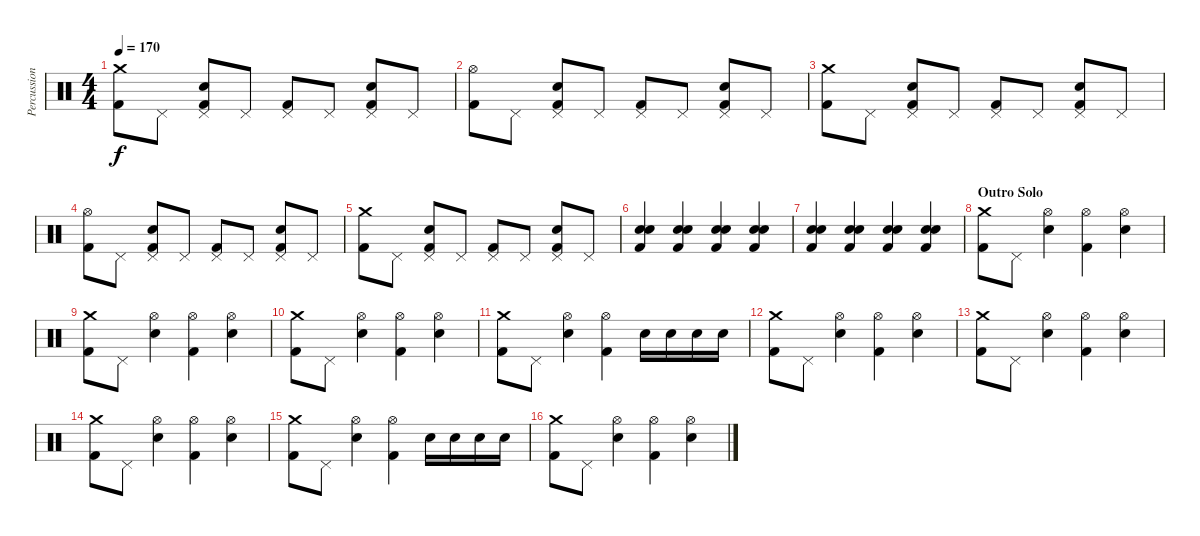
\track ("Percussion" "Percussion") {instrument percussion}
\staff {score}
\articulation defaults
\ts (4 4)
\tempo 170
\clef neutral
\ks c
("Crash medium (hit)" "Kick (hit) 2").8{dy f} "Pedal Hi-Hat (hit)".8 ("Pedal Hi-Hat (hit)" "Electric Snare (hit)" "Kick (hit) 2").8 "Pedal Hi-Hat (hit)".8 ("Pedal Hi-Hat (hit)" "Kick (hit) 2").8 "Pedal Hi-Hat (hit)".8 ("Pedal Hi-Hat (hit)" "Electric Snare (hit)" "Kick (hit) 2").8 "Pedal Hi-Hat (hit)".8 |
("Hi-Hat (open)" "Kick (hit) 2").8 "Pedal Hi-Hat (hit)".8 ("Pedal Hi-Hat (hit)" "Electric Snare (hit)" "Kick (hit) 2").8 "Pedal Hi-Hat (hit)".8 ("Pedal Hi-Hat (hit)" "Kick (hit) 2").8 "Pedal Hi-Hat (hit)".8 ("Pedal Hi-Hat (hit)" "Electric Snare (hit)" "Kick (hit) 2").8 "Pedal Hi-Hat (hit)".8 |
("Crash medium (hit)" "Kick (hit) 2").8 "Pedal Hi-Hat (hit)".8 ("Pedal Hi-Hat (hit)" "Electric Snare (hit)" "Kick (hit) 2").8 "Pedal Hi-Hat (hit)".8 ("Pedal Hi-Hat (hit)" "Kick (hit) 2").8 "Pedal Hi-Hat (hit)".8 ("Pedal Hi-Hat (hit)" "Electric Snare (hit)" "Kick (hit) 2").8 "Pedal Hi-Hat (hit)".8 |
("Hi-Hat (open)" "Kick (hit) 2").8 "Pedal Hi-Hat (hit)".8 ("Pedal Hi-Hat (hit)" "Electric Snare (hit)" "Kick (hit) 2").8 "Pedal Hi-Hat (hit)".8 ("Pedal Hi-Hat (hit)" "Kick (hit) 2").8 "Pedal Hi-Hat (hit)".8 ("Pedal Hi-Hat (hit)" "Electric Snare (hit)" "Kick (hit) 2").8 "Pedal Hi-Hat (hit)".8 |
("Crash medium (hit)" "Kick (hit) 2").8 "Pedal Hi-Hat (hit)".8 ("Pedal Hi-Hat (hit)" "Electric Snare (hit)" "Kick (hit) 2").8 "Pedal Hi-Hat (hit)".8 ("Pedal Hi-Hat (hit)" "Kick (hit) 2").8 "Pedal Hi-Hat (hit)".8 ("Pedal Hi-Hat (hit)" "Electric Snare (hit)" "Kick (hit) 2").8 "Pedal Hi-Hat (hit)".8 |
("Electric Snare (hit)" "Electric Snare (hit)" "Kick (hit) 2").4 ("Electric Snare (hit)" "Electric Snare (hit)" "Kick (hit) 2").4 ("Electric Snare (hit)" "Electric Snare (hit)" "Kick (hit) 2").4 ("Electric Snare (hit)" "Electric Snare (hit)" "Kick (hit) 2").4 |
("Electric Snare (hit)" "Electric Snare (hit)" "Kick (hit) 2").4 ("Electric Snare (hit)" "Electric Snare (hit)" "Kick (hit) 2").4 ("Electric Snare (hit)" "Electric Snare (hit)" "Kick (hit) 2").4 ("Electric Snare (hit)" "Electric Snare (hit)" "Kick (hit) 2").4 |
\section ("" "Outro Solo")
("Crash medium (hit)" "Kick (hit) 2").8 "Pedal Hi-Hat (hit)".8 ("Hi-Hat (open)" "Electric Snare (hit)").4 ("Hi-Hat (open)" "Kick (hit) 2").4 ("Hi-Hat (open)" "Electric Snare (hit)").4 |
("Crash medium (hit)" "Kick (hit) 2").8 "Pedal Hi-Hat (hit)".8 ("Hi-Hat (open)" "Electric Snare (hit)").4 ("Hi-Hat (open)" "Kick (hit) 2").4 ("Hi-Hat (open)" "Electric Snare (hit)").4 |
("Crash medium (hit)" "Kick (hit) 2").8 "Pedal Hi-Hat (hit)".8 ("Hi-Hat (open)" "Electric Snare (hit)").4 ("Hi-Hat (open)" "Kick (hit) 2").4 ("Hi-Hat (open)" "Electric Snare (hit)").4 |
("Crash medium (hit)" "Kick (hit) 2").8 "Pedal Hi-Hat (hit)".8 ("Hi-Hat (open)" "Electric Snare (hit)").4 ("Hi-Hat (open)" "Kick (hit) 2").4 "Electric Snare (hit)".16 "Electric Snare (hit)".16 "Electric Snare (hit)".16 "Electric Snare (hit)".16 |
("Crash medium (hit)" "Kick (hit) 2").8 "Pedal Hi-Hat (hit)".8 ("Hi-Hat (open)" "Electric Snare (hit)").4 ("Hi-Hat (open)" "Kick (hit) 2").4 ("Hi-Hat (open)" "Electric Snare (hit)").4 |
("Crash medium (hit)" "Kick (hit) 2").8 "Pedal Hi-Hat (hit)".8 ("Hi-Hat (open)" "Electric Snare (hit)").4 ("Hi-Hat (open)" "Kick (hit) 2").4 ("Hi-Hat (open)" "Electric Snare (hit)").4 |
("Crash medium (hit)" "Kick (hit) 2").8 "Pedal Hi-Hat (hit)".8 ("Hi-Hat (open)" "Electric Snare (hit)").4 ("Hi-Hat (open)" "Kick (hit) 2").4 ("Hi-Hat (open)" "Electric Snare (hit)").4 |
("Crash medium (hit)" "Kick (hit) 2").8 "Pedal Hi-Hat (hit)".8 ("Hi-Hat (open)" "Electric Snare (hit)").4 ("Hi-Hat (open)" "Kick (hit) 2").4 "Electric Snare (hit)".16 "Electric Snare (hit)".16 "Electric Snare (hit)".16 "Electric Snare (hit)".16 |
("Crash medium (hit)" "Kick (hit) 2").8 "Pedal Hi-Hat (hit)".8 ("Hi-Hat (open)" "Electric Snare (hit)").4 ("Hi-Hat (open)" "Kick (hit) 2").4 ("Hi-Hat (open)" "Electric Snare (hit)").4
